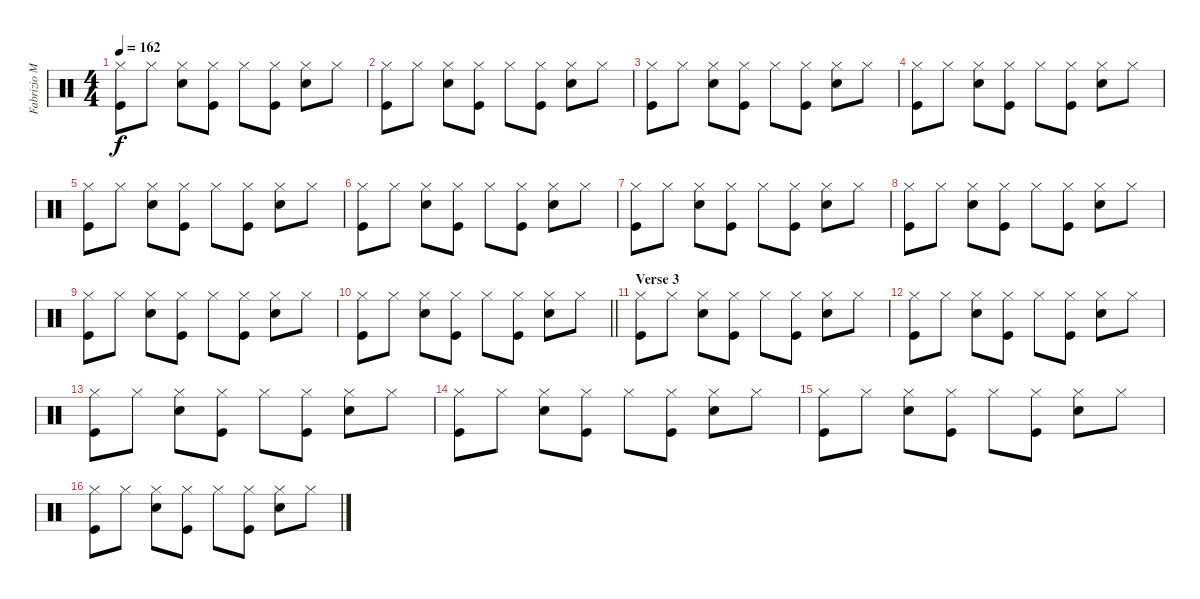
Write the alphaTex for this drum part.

\track ("Fabrizio Moretti" "Fabrizio M") {instrument percussion}
\staff {score}
\articulation defaults
\ts (4 4)
\tempo 162
\clef neutral
\ks c
("Hi-Hat (closed)" "Kick (hit)").8{dy f} "Hi-Hat (closed)".8 ("Hi-Hat (closed)" "Snare (hit) 2").8 ("Hi-Hat (closed)" "Kick (hit)").8 "Hi-Hat (closed)".8 ("Hi-Hat (closed)" "Kick (hit)").8 ("Hi-Hat (closed)" "Snare (hit) 2").8 "Hi-Hat (closed)".8 |
("Hi-Hat (closed)" "Kick (hit)").8 "Hi-Hat (closed)".8 ("Hi-Hat (closed)" "Snare (hit) 2").8 ("Hi-Hat (closed)" "Kick (hit)").8 "Hi-Hat (closed)".8 ("Hi-Hat (closed)" "Kick (hit)").8 ("Hi-Hat (closed)" "Snare (hit) 2").8 "Hi-Hat (closed)".8 |
("Hi-Hat (closed)" "Kick (hit)").8 "Hi-Hat (closed)".8 ("Hi-Hat (closed)" "Snare (hit) 2").8 ("Hi-Hat (closed)" "Kick (hit)").8 "Hi-Hat (closed)".8 ("Hi-Hat (closed)" "Kick (hit)").8 ("Hi-Hat (closed)" "Snare (hit) 2").8 "Hi-Hat (closed)".8 |
("Hi-Hat (closed)" "Kick (hit)").8 "Hi-Hat (closed)".8 ("Hi-Hat (closed)" "Snare (hit) 2").8 ("Hi-Hat (closed)" "Kick (hit)").8 "Hi-Hat (closed)".8 ("Hi-Hat (closed)" "Kick (hit)").8 ("Hi-Hat (closed)" "Snare (hit) 2").8 "Hi-Hat (closed)".8 |
("Hi-Hat (closed)" "Kick (hit)").8 "Hi-Hat (closed)".8 ("Hi-Hat (closed)" "Snare (hit) 2").8 ("Hi-Hat (closed)" "Kick (hit)").8 "Hi-Hat (closed)".8 ("Hi-Hat (closed)" "Kick (hit)").8 ("Hi-Hat (closed)" "Snare (hit) 2").8 "Hi-Hat (closed)".8 |
("Hi-Hat (closed)" "Kick (hit)").8 "Hi-Hat (closed)".8 ("Hi-Hat (closed)" "Snare (hit) 2").8 ("Hi-Hat (closed)" "Kick (hit)").8 "Hi-Hat (closed)".8 ("Hi-Hat (closed)" "Kick (hit)").8 ("Hi-Hat (closed)" "Snare (hit) 2").8 "Hi-Hat (closed)".8 |
("Hi-Hat (closed)" "Kick (hit)").8 "Hi-Hat (closed)".8 ("Hi-Hat (closed)" "Snare (hit) 2").8 ("Hi-Hat (closed)" "Kick (hit)").8 "Hi-Hat (closed)".8 ("Hi-Hat (closed)" "Kick (hit)").8 ("Hi-Hat (closed)" "Snare (hit) 2").8 "Hi-Hat (closed)".8 |
("Hi-Hat (closed)" "Kick (hit)").8 "Hi-Hat (closed)".8 ("Hi-Hat (closed)" "Snare (hit) 2").8 ("Hi-Hat (closed)" "Kick (hit)").8 "Hi-Hat (closed)".8 ("Hi-Hat (closed)" "Kick (hit)").8 ("Hi-Hat (closed)" "Snare (hit) 2").8 "Hi-Hat (closed)".8 |
("Hi-Hat (closed)" "Kick (hit)").8 "Hi-Hat (closed)".8 ("Hi-Hat (closed)" "Snare (hit) 2").8 ("Hi-Hat (closed)" "Kick (hit)").8 "Hi-Hat (closed)".8 ("Hi-Hat (closed)" "Kick (hit)").8 ("Hi-Hat (closed)" "Snare (hit) 2").8 "Hi-Hat (closed)".8 |
\barLineRight lightlight
("Hi-Hat (closed)" "Kick (hit)").8 "Hi-Hat (closed)".8 ("Hi-Hat (closed)" "Snare (hit) 2").8 ("Hi-Hat (closed)" "Kick (hit)").8 "Hi-Hat (closed)".8 ("Hi-Hat (closed)" "Kick (hit)").8 ("Hi-Hat (closed)" "Snare (hit) 2").8 "Hi-Hat (closed)".8 |
\section ("" "Verse 3")
("Hi-Hat (closed)" "Kick (hit)").8 "Hi-Hat (closed)".8 ("Hi-Hat (closed)" "Snare (hit) 2").8 ("Hi-Hat (closed)" "Kick (hit)").8 "Hi-Hat (closed)".8 ("Hi-Hat (closed)" "Kick (hit)").8 ("Hi-Hat (closed)" "Snare (hit) 2").8 "Hi-Hat (closed)".8 |
("Hi-Hat (closed)" "Kick (hit)").8 "Hi-Hat (closed)".8 ("Hi-Hat (closed)" "Snare (hit) 2").8 ("Hi-Hat (closed)" "Kick (hit)").8 "Hi-Hat (closed)".8 ("Hi-Hat (closed)" "Kick (hit)").8 ("Hi-Hat (closed)" "Snare (hit) 2").8 "Hi-Hat (closed)".8 |
("Hi-Hat (closed)" "Kick (hit)").8 "Hi-Hat (closed)".8 ("Hi-Hat (closed)" "Snare (hit) 2").8 ("Hi-Hat (closed)" "Kick (hit)").8 "Hi-Hat (closed)".8 ("Hi-Hat (closed)" "Kick (hit)").8 ("Hi-Hat (closed)" "Snare (hit) 2").8 "Hi-Hat (closed)".8 |
("Hi-Hat (closed)" "Kick (hit)").8 "Hi-Hat (closed)".8 ("Hi-Hat (closed)" "Snare (hit) 2").8 ("Hi-Hat (closed)" "Kick (hit)").8 "Hi-Hat (closed)".8 ("Hi-Hat (closed)" "Kick (hit)").8 ("Hi-Hat (closed)" "Snare (hit) 2").8 "Hi-Hat (closed)".8 |
("Hi-Hat (closed)" "Kick (hit)").8 "Hi-Hat (closed)".8 ("Hi-Hat (closed)" "Snare (hit) 2").8 ("Hi-Hat (closed)" "Kick (hit)").8 "Hi-Hat (closed)".8 ("Hi-Hat (closed)" "Kick (hit)").8 ("Hi-Hat (closed)" "Snare (hit) 2").8 "Hi-Hat (closed)".8 |
("Hi-Hat (closed)" "Kick (hit)").8 "Hi-Hat (closed)".8 ("Hi-Hat (closed)" "Snare (hit) 2").8 ("Hi-Hat (closed)" "Kick (hit)").8 "Hi-Hat (closed)".8 ("Hi-Hat (closed)" "Kick (hit)").8 ("Hi-Hat (closed)" "Snare (hit) 2").8 "Hi-Hat (closed)".8
